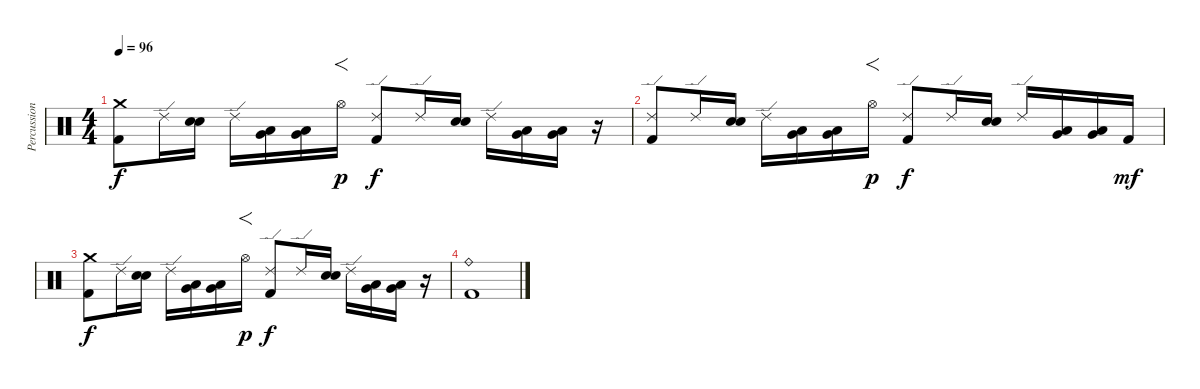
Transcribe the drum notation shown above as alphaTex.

\track ("Percussions" "Percussion") {instrument percussion}
\staff {score}
\articulation defaults
\ts (4 4)
\tempo 96
\clef neutral
\ks c
("Crash medium (hit)" "Kick (hit) 2").8{dy f} "Ride (edge) 2".16 ("Snare (hit) 2" "Electric Snare (hit)").16 "Ride (edge) 2".16 ("Low Tom (hit)" "Very Low Tom (hit)").16 ("Low Tom (hit)" "Very Low Tom (hit)").16 "Hi-Hat (open)".16{f dy p} ("Ride (edge) 2" "Kick (hit) 2").8{dy f} "Ride (edge) 2".16 ("Snare (hit) 2" "Electric Snare (hit)").16 "Ride (edge) 2".16 ("Low Tom (hit)" "Very Low Tom (hit)").16 ("Low Tom (hit)" "Very Low Tom (hit)").16 r.16 |
("Ride (edge) 2" "Kick (hit) 2").8 "Ride (edge) 2".16 ("Snare (hit) 2" "Electric Snare (hit)").16 "Ride (edge) 2".16 ("Low Tom (hit)" "Very Low Tom (hit)").16 ("Low Tom (hit)" "Very Low Tom (hit)").16 "Hi-Hat (open)".16{f dy p} ("Ride (edge) 2" "Kick (hit) 2").8{dy f} "Ride (edge) 2".16 ("Snare (hit) 2" "Electric Snare (hit)").16 "Ride (edge) 2".16 ("Low Tom (hit)" "Very Low Tom (hit)").16 ("Low Tom (hit)" "Very Low Tom (hit)").16 "Kick (hit) 2".16{dy mf} |
("Crash medium (hit)" "Kick (hit) 2").8{dy f} "Ride (edge) 2".16 ("Snare (hit) 2" "Electric Snare (hit)").16 "Ride (edge) 2".16 ("Low Tom (hit)" "Very Low Tom (hit)").16 ("Low Tom (hit)" "Very Low Tom (hit)").16 "Hi-Hat (open)".16{f dy p} ("Ride (edge) 2" "Kick (hit) 2").8{dy f} "Ride (edge) 2".16 ("Snare (hit) 2" "Electric Snare (hit)").16 "Ride (edge) 2".16 ("Low Tom (hit)" "Very Low Tom (hit)").16 ("Low Tom (hit)" "Very Low Tom (hit)").16 r.16 |
("Ride (bell)" "Kick (hit) 2").1
